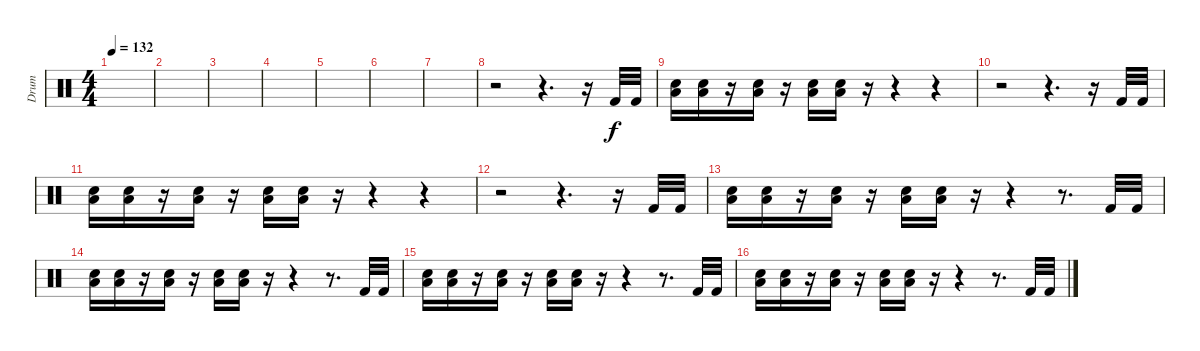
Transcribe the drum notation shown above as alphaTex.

\track ("Drum" "Drum") {instrument percussion}
\staff {score}
\articulation defaults
\ts (4 4)
\tempo 132
\clef neutral
\ks c
|
|
|
|
|
|
|
r.2 r.4{d} r.16 "Kick (hit) 2".32 "Kick (hit) 2".32 |
("Snare (hit) 2" "Low Floor Tom (hit)").16 ("Snare (hit) 2" "Low Floor Tom (hit)").16 r.16 ("Snare (hit) 2" "Low Floor Tom (hit)").16 r.16 ("Snare (hit) 2" "Low Floor Tom (hit)").16 ("Snare (hit) 2" "Low Floor Tom (hit)").16 r.16 r.4 r.4 |
r.2 r.4{d} r.16 "Kick (hit) 2".32 "Kick (hit) 2".32 |
("Snare (hit) 2" "Low Floor Tom (hit)").16 ("Snare (hit) 2" "Low Floor Tom (hit)").16 r.16 ("Snare (hit) 2" "Low Floor Tom (hit)").16 r.16 ("Snare (hit) 2" "Low Floor Tom (hit)").16 ("Snare (hit) 2" "Low Floor Tom (hit)").16 r.16 r.4 r.4 |
r.2 r.4{d} r.16 "Kick (hit) 2".32 "Kick (hit) 2".32 |
("Snare (hit) 2" "Low Floor Tom (hit)").16 ("Snare (hit) 2" "Low Floor Tom (hit)").16 r.16 ("Snare (hit) 2" "Low Floor Tom (hit)").16 r.16 ("Snare (hit) 2" "Low Floor Tom (hit)").16 ("Snare (hit) 2" "Low Floor Tom (hit)").16 r.16 r.4 r.8{d} "Kick (hit) 2".32 "Kick (hit) 2".32 |
("Snare (hit) 2" "Low Floor Tom (hit)").16 ("Snare (hit) 2" "Low Floor Tom (hit)").16 r.16 ("Snare (hit) 2" "Low Floor Tom (hit)").16 r.16 ("Snare (hit) 2" "Low Floor Tom (hit)").16 ("Snare (hit) 2" "Low Floor Tom (hit)").16 r.16 r.4 r.8{d} "Kick (hit) 2".32 "Kick (hit) 2".32 |
("Snare (hit) 2" "Low Floor Tom (hit)").16 ("Snare (hit) 2" "Low Floor Tom (hit)").16 r.16 ("Snare (hit) 2" "Low Floor Tom (hit)").16 r.16 ("Snare (hit) 2" "Low Floor Tom (hit)").16 ("Snare (hit) 2" "Low Floor Tom (hit)").16 r.16 r.4 r.8{d} "Kick (hit) 2".32 "Kick (hit) 2".32 |
("Snare (hit) 2" "Low Floor Tom (hit)").16 ("Snare (hit) 2" "Low Floor Tom (hit)").16 r.16 ("Snare (hit) 2" "Low Floor Tom (hit)").16 r.16 ("Snare (hit) 2" "Low Floor Tom (hit)").16 ("Snare (hit) 2" "Low Floor Tom (hit)").16 r.16 r.4 r.8{d} "Kick (hit) 2".32 "Kick (hit) 2".32
